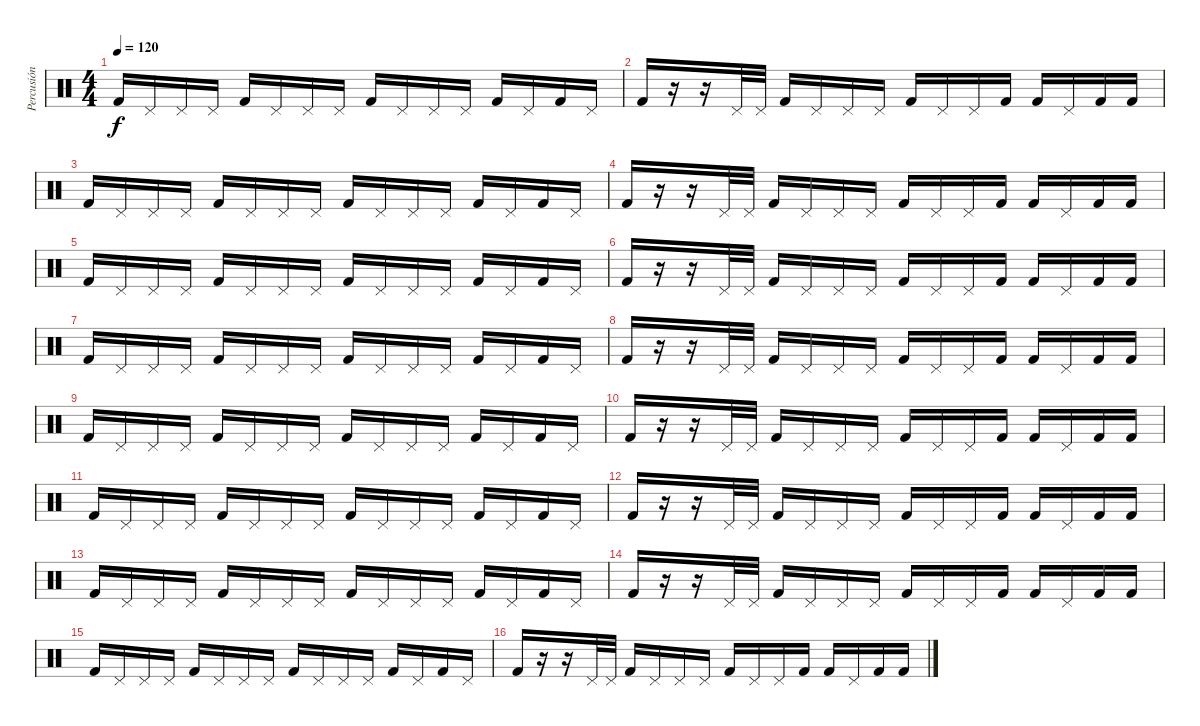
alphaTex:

\track ("Percusión" "Percusión") {instrument percussion}
\staff {score}
\articulation defaults
\ts (4 4)
\tempo 120
\clef neutral
\ks c "Kick (hit) 2".16{dy f} "Pedal Hi-Hat (hit)".16 "Pedal Hi-Hat (hit)".16 "Pedal Hi-Hat (hit)".16 "Kick (hit) 2".16 "Pedal Hi-Hat (hit)".16 "Pedal Hi-Hat (hit)".16 "Pedal Hi-Hat (hit)".16 "Kick (hit) 2".16 "Pedal Hi-Hat (hit)".16 "Pedal Hi-Hat (hit)".16 "Pedal Hi-Hat (hit)".16 "Kick (hit) 2".16 "Pedal Hi-Hat (hit)".16 "Kick (hit) 2".16 "Pedal Hi-Hat (hit)".16
|
"Kick (hit) 2".16 r.16 r.16 "Pedal Hi-Hat (hit)".32 "Pedal Hi-Hat (hit)".32 "Kick (hit) 2".16 "Pedal Hi-Hat (hit)".16 "Pedal Hi-Hat (hit)".16 "Pedal Hi-Hat (hit)".16 "Kick (hit) 2".16 "Pedal Hi-Hat (hit)".16 "Pedal Hi-Hat (hit)".16 "Kick (hit) 2".16 "Kick (hit) 2".16 "Pedal Hi-Hat (hit)".16 "Kick (hit) 2".16 "Kick (hit) 2".16 |
"Kick (hit) 2".16 "Pedal Hi-Hat (hit)".16 "Pedal Hi-Hat (hit)".16 "Pedal Hi-Hat (hit)".16 "Kick (hit) 2".16 "Pedal Hi-Hat (hit)".16 "Pedal Hi-Hat (hit)".16 "Pedal Hi-Hat (hit)".16 "Kick (hit) 2".16 "Pedal Hi-Hat (hit)".16 "Pedal Hi-Hat (hit)".16 "Pedal Hi-Hat (hit)".16 "Kick (hit) 2".16 "Pedal Hi-Hat (hit)".16 "Kick (hit) 2".16 "Pedal Hi-Hat (hit)".16 |
"Kick (hit) 2".16 r.16 r.16 "Pedal Hi-Hat (hit)".32 "Pedal Hi-Hat (hit)".32 "Kick (hit) 2".16 "Pedal Hi-Hat (hit)".16 "Pedal Hi-Hat (hit)".16 "Pedal Hi-Hat (hit)".16 "Kick (hit) 2".16 "Pedal Hi-Hat (hit)".16 "Pedal Hi-Hat (hit)".16 "Kick (hit) 2".16 "Kick (hit) 2".16 "Pedal Hi-Hat (hit)".16 "Kick (hit) 2".16 "Kick (hit) 2".16 |
"Kick (hit) 2".16 "Pedal Hi-Hat (hit)".16 "Pedal Hi-Hat (hit)".16 "Pedal Hi-Hat (hit)".16 "Kick (hit) 2".16 "Pedal Hi-Hat (hit)".16 "Pedal Hi-Hat (hit)".16 "Pedal Hi-Hat (hit)".16 "Kick (hit) 2".16 "Pedal Hi-Hat (hit)".16 "Pedal Hi-Hat (hit)".16 "Pedal Hi-Hat (hit)".16 "Kick (hit) 2".16 "Pedal Hi-Hat (hit)".16 "Kick (hit) 2".16 "Pedal Hi-Hat (hit)".16 |
"Kick (hit) 2".16 r.16 r.16 "Pedal Hi-Hat (hit)".32 "Pedal Hi-Hat (hit)".32 "Kick (hit) 2".16 "Pedal Hi-Hat (hit)".16 "Pedal Hi-Hat (hit)".16 "Pedal Hi-Hat (hit)".16 "Kick (hit) 2".16 "Pedal Hi-Hat (hit)".16 "Pedal Hi-Hat (hit)".16 "Kick (hit) 2".16 "Kick (hit) 2".16 "Pedal Hi-Hat (hit)".16 "Kick (hit) 2".16 "Kick (hit) 2".16 |
"Kick (hit) 2".16 "Pedal Hi-Hat (hit)".16 "Pedal Hi-Hat (hit)".16 "Pedal Hi-Hat (hit)".16 "Kick (hit) 2".16 "Pedal Hi-Hat (hit)".16 "Pedal Hi-Hat (hit)".16 "Pedal Hi-Hat (hit)".16 "Kick (hit) 2".16 "Pedal Hi-Hat (hit)".16 "Pedal Hi-Hat (hit)".16 "Pedal Hi-Hat (hit)".16 "Kick (hit) 2".16 "Pedal Hi-Hat (hit)".16 "Kick (hit) 2".16 "Pedal Hi-Hat (hit)".16 |
"Kick (hit) 2".16 r.16 r.16 "Pedal Hi-Hat (hit)".32 "Pedal Hi-Hat (hit)".32 "Kick (hit) 2".16 "Pedal Hi-Hat (hit)".16 "Pedal Hi-Hat (hit)".16 "Pedal Hi-Hat (hit)".16 "Kick (hit) 2".16 "Pedal Hi-Hat (hit)".16 "Pedal Hi-Hat (hit)".16 "Kick (hit) 2".16 "Kick (hit) 2".16 "Pedal Hi-Hat (hit)".16 "Kick (hit) 2".16 "Kick (hit) 2".16 |
"Kick (hit) 2".16 "Pedal Hi-Hat (hit)".16 "Pedal Hi-Hat (hit)".16 "Pedal Hi-Hat (hit)".16 "Kick (hit) 2".16 "Pedal Hi-Hat (hit)".16 "Pedal Hi-Hat (hit)".16 "Pedal Hi-Hat (hit)".16 "Kick (hit) 2".16 "Pedal Hi-Hat (hit)".16 "Pedal Hi-Hat (hit)".16 "Pedal Hi-Hat (hit)".16 "Kick (hit) 2".16 "Pedal Hi-Hat (hit)".16 "Kick (hit) 2".16 "Pedal Hi-Hat (hit)".16 |
"Kick (hit) 2".16 r.16 r.16 "Pedal Hi-Hat (hit)".32 "Pedal Hi-Hat (hit)".32 "Kick (hit) 2".16 "Pedal Hi-Hat (hit)".16 "Pedal Hi-Hat (hit)".16 "Pedal Hi-Hat (hit)".16 "Kick (hit) 2".16 "Pedal Hi-Hat (hit)".16 "Pedal Hi-Hat (hit)".16 "Kick (hit) 2".16 "Kick (hit) 2".16 "Pedal Hi-Hat (hit)".16 "Kick (hit) 2".16 "Kick (hit) 2".16 |
"Kick (hit) 2".16 "Pedal Hi-Hat (hit)".16 "Pedal Hi-Hat (hit)".16 "Pedal Hi-Hat (hit)".16 "Kick (hit) 2".16 "Pedal Hi-Hat (hit)".16 "Pedal Hi-Hat (hit)".16 "Pedal Hi-Hat (hit)".16 "Kick (hit) 2".16 "Pedal Hi-Hat (hit)".16 "Pedal Hi-Hat (hit)".16 "Pedal Hi-Hat (hit)".16 "Kick (hit) 2".16 "Pedal Hi-Hat (hit)".16 "Kick (hit) 2".16 "Pedal Hi-Hat (hit)".16 |
"Kick (hit) 2".16 r.16 r.16 "Pedal Hi-Hat (hit)".32 "Pedal Hi-Hat (hit)".32 "Kick (hit) 2".16 "Pedal Hi-Hat (hit)".16 "Pedal Hi-Hat (hit)".16 "Pedal Hi-Hat (hit)".16 "Kick (hit) 2".16 "Pedal Hi-Hat (hit)".16 "Pedal Hi-Hat (hit)".16 "Kick (hit) 2".16 "Kick (hit) 2".16 "Pedal Hi-Hat (hit)".16 "Kick (hit) 2".16 "Kick (hit) 2".16 |
"Kick (hit) 2".16 "Pedal Hi-Hat (hit)".16 "Pedal Hi-Hat (hit)".16 "Pedal Hi-Hat (hit)".16 "Kick (hit) 2".16 "Pedal Hi-Hat (hit)".16 "Pedal Hi-Hat (hit)".16 "Pedal Hi-Hat (hit)".16 "Kick (hit) 2".16 "Pedal Hi-Hat (hit)".16 "Pedal Hi-Hat (hit)".16 "Pedal Hi-Hat (hit)".16 "Kick (hit) 2".16 "Pedal Hi-Hat (hit)".16 "Kick (hit) 2".16 "Pedal Hi-Hat (hit)".16 |
"Kick (hit) 2".16 r.16 r.16 "Pedal Hi-Hat (hit)".32 "Pedal Hi-Hat (hit)".32 "Kick (hit) 2".16 "Pedal Hi-Hat (hit)".16 "Pedal Hi-Hat (hit)".16 "Pedal Hi-Hat (hit)".16 "Kick (hit) 2".16 "Pedal Hi-Hat (hit)".16 "Pedal Hi-Hat (hit)".16 "Kick (hit) 2".16 "Kick (hit) 2".16 "Pedal Hi-Hat (hit)".16 "Kick (hit) 2".16 "Kick (hit) 2".16 |
"Kick (hit) 2".16 "Pedal Hi-Hat (hit)".16 "Pedal Hi-Hat (hit)".16 "Pedal Hi-Hat (hit)".16 "Kick (hit) 2".16 "Pedal Hi-Hat (hit)".16 "Pedal Hi-Hat (hit)".16 "Pedal Hi-Hat (hit)".16 "Kick (hit) 2".16 "Pedal Hi-Hat (hit)".16 "Pedal Hi-Hat (hit)".16 "Pedal Hi-Hat (hit)".16 "Kick (hit) 2".16 "Pedal Hi-Hat (hit)".16 "Kick (hit) 2".16 "Pedal Hi-Hat (hit)".16 |
"Kick (hit) 2".16 r.16 r.16 "Pedal Hi-Hat (hit)".32 "Pedal Hi-Hat (hit)".32 "Kick (hit) 2".16 "Pedal Hi-Hat (hit)".16 "Pedal Hi-Hat (hit)".16 "Pedal Hi-Hat (hit)".16 "Kick (hit) 2".16 "Pedal Hi-Hat (hit)".16 "Pedal Hi-Hat (hit)".16 "Kick (hit) 2".16 "Kick (hit) 2".16 "Pedal Hi-Hat (hit)".16 "Kick (hit) 2".16 "Kick (hit) 2".16
